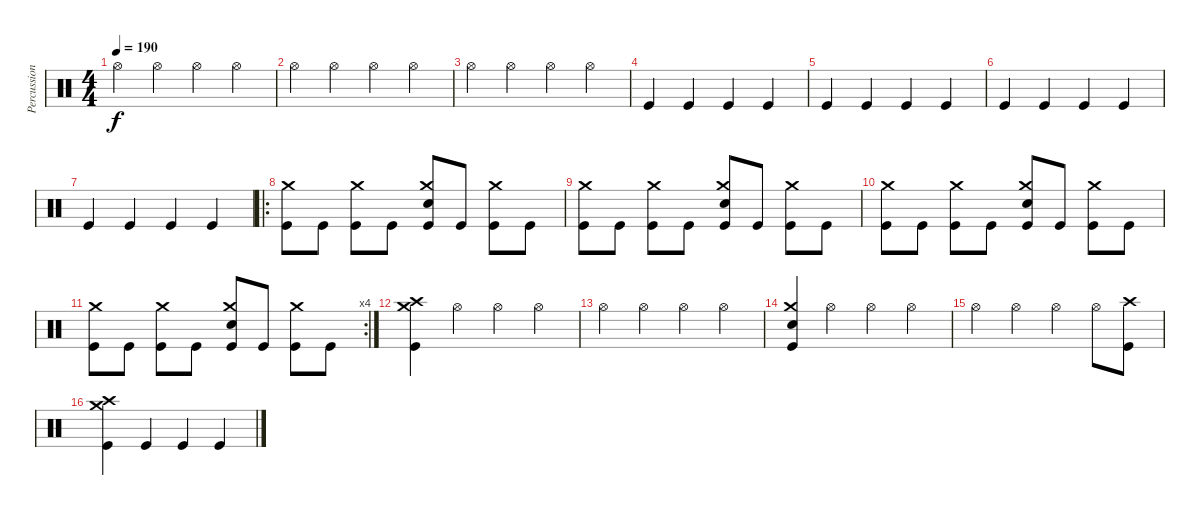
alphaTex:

\track ("Percussion" "Percussion") {instrument percussion}
\staff {score}
\articulation defaults
\ts (4 4)
\tempo 190
\clef neutral
\ks c "Hi-Hat (open)".4{dy f} "Hi-Hat (open)".4 "Hi-Hat (open)".4 "Hi-Hat (open)".4
|
"Hi-Hat (open)".4 "Hi-Hat (open)".4 "Hi-Hat (open)".4 "Hi-Hat (open)".4 |
"Hi-Hat (open)".4 "Hi-Hat (open)".4 "Hi-Hat (open)".4 "Hi-Hat (open)".4 |
"Kick (hit)".4 "Kick (hit)".4 "Kick (hit)".4 "Kick (hit)".4 |
"Kick (hit)".4 "Kick (hit)".4 "Kick (hit)".4 "Kick (hit)".4 |
"Kick (hit)".4 "Kick (hit)".4 "Kick (hit)".4 "Kick (hit)".4 |
"Kick (hit)".4 "Kick (hit)".4 "Kick (hit)".4 "Kick (hit)".4 |
\ro
("Crash medium (hit)" "Kick (hit)").8 "Kick (hit)".8 ("Crash medium (hit)" "Kick (hit)").8 "Kick (hit)".8 ("Crash medium (hit)" "Snare (hit) 2" "Kick (hit)").8 "Kick (hit)".8 ("Crash medium (hit)" "Kick (hit)").8 "Kick (hit)".8 |
("Crash medium (hit)" "Kick (hit)").8 "Kick (hit)".8 ("Crash medium (hit)" "Kick (hit)").8 "Kick (hit)".8 ("Crash medium (hit)" "Snare (hit) 2" "Kick (hit)").8 "Kick (hit)".8 ("Crash medium (hit)" "Kick (hit)").8 "Kick (hit)".8 |
("Crash medium (hit)" "Kick (hit)").8 "Kick (hit)".8 ("Crash medium (hit)" "Kick (hit)").8 "Kick (hit)".8 ("Crash medium (hit)" "Snare (hit) 2" "Kick (hit)").8 "Kick (hit)".8 ("Crash medium (hit)" "Kick (hit)").8 "Kick (hit)".8 |
\rc 4
("Crash medium (hit)" "Kick (hit)").8 "Kick (hit)".8 ("Crash medium (hit)" "Kick (hit)").8 "Kick (hit)".8 ("Crash medium (hit)" "Snare (hit) 2" "Kick (hit)").8 "Kick (hit)".8 ("Crash medium (hit)" "Kick (hit)").8 "Kick (hit)".8 |
("Crash medium (hit)" "Crash high (hit)" "Kick (hit)").4 "Hi-Hat (open)".4 "Hi-Hat (open)".4 "Hi-Hat (open)".4 |
"Hi-Hat (open)".4 "Hi-Hat (open)".4 "Hi-Hat (open)".4 "Hi-Hat (open)".4 |
("Crash medium (hit)" "Snare (hit)" "Kick (hit)").4 "Hi-Hat (open)".4 "Hi-Hat (open)".4 "Hi-Hat (open)".4 |
"Hi-Hat (open)".4 "Hi-Hat (open)".4 "Hi-Hat (open)".4 "Hi-Hat (open)".8 ("Crash high (hit)" "Kick (hit)").8 |
("Crash medium (hit)" "Crash high (hit)" "Kick (hit)").4 "Kick (hit)".4 "Kick (hit)".4 "Kick (hit)".4
